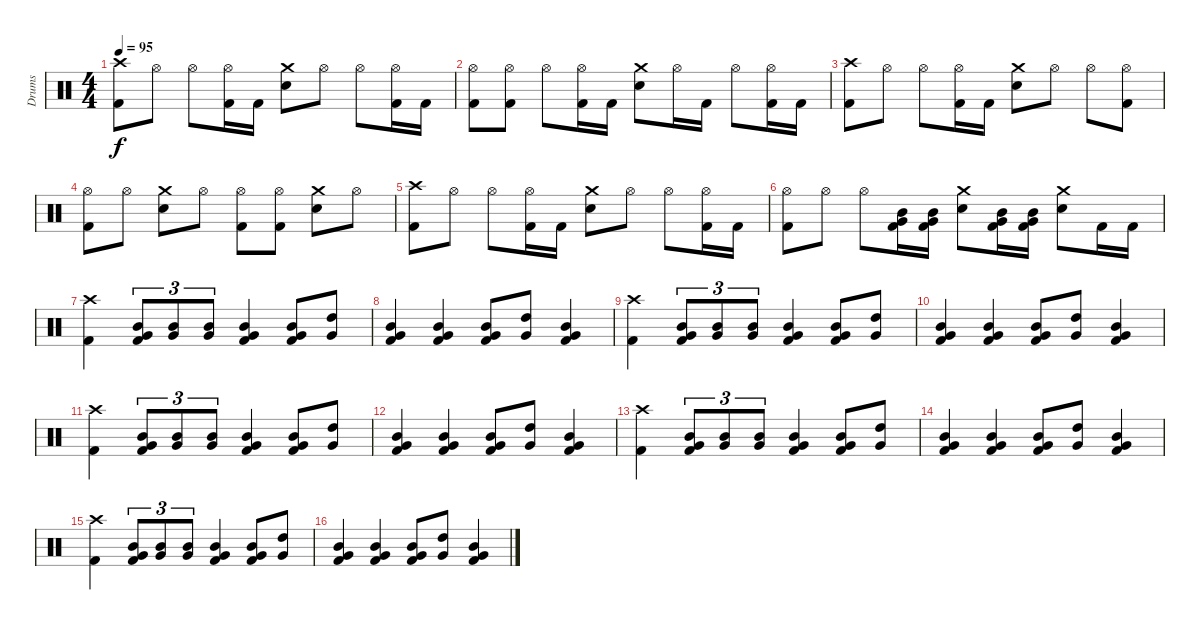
\track ("Drums" "Drums") {instrument percussion}
\staff {score}
\articulation defaults
\ts (4 4)
\tempo 95
\clef neutral
\ks c
("Crash high (hit)" "Kick (hit) 2").8{dy f} "Hi-Hat (open)".8 "Hi-Hat (open)".8 ("Hi-Hat (open)" "Kick (hit) 2").16 "Kick (hit) 2".16 ("Crash medium (hit)" "Electric Snare (hit)").8 "Hi-Hat (open)".8 "Hi-Hat (open)".8 ("Hi-Hat (open)" "Kick (hit) 2").16 "Kick (hit) 2".16 |
("Hi-Hat (open)" "Kick (hit) 2").8 ("Hi-Hat (open)" "Kick (hit) 2").8 "Hi-Hat (open)".8 ("Hi-Hat (open)" "Kick (hit) 2").16 "Kick (hit) 2".16 ("Crash medium (hit)" "Electric Snare (hit)").8 "Hi-Hat (open)".16 "Kick (hit) 2".16 "Hi-Hat (open)".8 ("Hi-Hat (open)" "Kick (hit) 2").16 "Kick (hit) 2".16 |
("Crash high (hit)" "Kick (hit) 2").8 "Hi-Hat (open)".8 "Hi-Hat (open)".8 ("Hi-Hat (open)" "Kick (hit) 2").16 "Kick (hit) 2".16 ("Crash medium (hit)" "Electric Snare (hit)").8 "Hi-Hat (open)".8 "Hi-Hat (open)".8 ("Hi-Hat (open)" "Kick (hit) 2").8 |
("Hi-Hat (open)" "Kick (hit) 2").8 "Hi-Hat (open)".8 ("Crash medium (hit)" "Electric Snare (hit)").8 "Hi-Hat (open)".8 ("Hi-Hat (open)" "Kick (hit) 2").8 ("Hi-Hat (open)" "Kick (hit) 2").8 ("Crash medium (hit)" "Electric Snare (hit)").8 "Hi-Hat (open)".8 |
("Crash high (hit)" "Kick (hit) 2").8 "Hi-Hat (open)".8 "Hi-Hat (open)".8 ("Hi-Hat (open)" "Kick (hit) 2").16 "Kick (hit) 2".16 ("Crash medium (hit)" "Electric Snare (hit)").8 "Hi-Hat (open)".8 "Hi-Hat (open)".8 ("Hi-Hat (open)" "Kick (hit) 2").16 "Kick (hit) 2".16 |
("Hi-Hat (open)" "Kick (hit) 2").8 "Hi-Hat (open)".8 "Hi-Hat (open)".8 ("Mid Tom (hit)" "Very Low Tom (hit)" "Kick (hit) 2").16 ("Mid Tom (hit)" "Very Low Tom (hit)" "Kick (hit) 2").16 ("Crash medium (hit)" "Electric Snare (hit)").8 ("Mid Tom (hit)" "Very Low Tom (hit)" "Kick (hit) 2").16 ("Mid Tom (hit)" "Very Low Tom (hit)" "Kick (hit) 2").16 ("Crash medium (hit)" "Electric Snare (hit)").8 "Kick (hit) 2".16 "Kick (hit) 2".16 |
("Crash high (hit)" "Kick (hit) 2").4 ("Mid Tom (hit)" "Very Low Tom (hit)" "Kick (hit) 2").8{tu (3 2)} ("Mid Tom (hit)" "Very Low Tom (hit)").8{tu (3 2)} ("Mid Tom (hit)" "Very Low Tom (hit)").8{tu (3 2)} ("Mid Tom (hit)" "Very Low Tom (hit)" "Kick (hit) 2").4 ("Mid Tom (hit)" "Very Low Tom (hit)" "Kick (hit) 2").8 ("High Tom (hit)" "Very Low Tom (hit)").8 |
("Mid Tom (hit)" "Very Low Tom (hit)" "Kick (hit) 2").4 ("Mid Tom (hit)" "Very Low Tom (hit)" "Kick (hit) 2").4 ("Mid Tom (hit)" "Very Low Tom (hit)" "Kick (hit) 2").8 ("High Tom (hit)" "Very Low Tom (hit)").8 ("Mid Tom (hit)" "Very Low Tom (hit)" "Kick (hit) 2").4 |
("Crash high (hit)" "Kick (hit) 2").4 ("Mid Tom (hit)" "Very Low Tom (hit)" "Kick (hit) 2").8{tu (3 2)} ("Mid Tom (hit)" "Very Low Tom (hit)").8{tu (3 2)} ("Mid Tom (hit)" "Very Low Tom (hit)").8{tu (3 2)} ("Mid Tom (hit)" "Very Low Tom (hit)" "Kick (hit) 2").4 ("Mid Tom (hit)" "Very Low Tom (hit)" "Kick (hit) 2").8 ("High Tom (hit)" "Very Low Tom (hit)").8 |
("Mid Tom (hit)" "Very Low Tom (hit)" "Kick (hit) 2").4 ("Mid Tom (hit)" "Very Low Tom (hit)" "Kick (hit) 2").4 ("Mid Tom (hit)" "Very Low Tom (hit)" "Kick (hit) 2").8 ("High Tom (hit)" "Very Low Tom (hit)").8 ("Mid Tom (hit)" "Very Low Tom (hit)" "Kick (hit) 2").4 |
("Crash high (hit)" "Kick (hit) 2").4 ("Mid Tom (hit)" "Very Low Tom (hit)" "Kick (hit) 2").8{tu (3 2)} ("Mid Tom (hit)" "Very Low Tom (hit)").8{tu (3 2)} ("Mid Tom (hit)" "Very Low Tom (hit)").8{tu (3 2)} ("Mid Tom (hit)" "Very Low Tom (hit)" "Kick (hit) 2").4 ("Mid Tom (hit)" "Very Low Tom (hit)" "Kick (hit) 2").8 ("High Tom (hit)" "Very Low Tom (hit)").8 |
("Mid Tom (hit)" "Very Low Tom (hit)" "Kick (hit) 2").4 ("Mid Tom (hit)" "Very Low Tom (hit)" "Kick (hit) 2").4 ("Mid Tom (hit)" "Very Low Tom (hit)" "Kick (hit) 2").8 ("High Tom (hit)" "Very Low Tom (hit)").8 ("Mid Tom (hit)" "Very Low Tom (hit)" "Kick (hit) 2").4 |
("Crash high (hit)" "Kick (hit) 2").4 ("Mid Tom (hit)" "Very Low Tom (hit)" "Kick (hit) 2").8{tu (3 2)} ("Mid Tom (hit)" "Very Low Tom (hit)").8{tu (3 2)} ("Mid Tom (hit)" "Very Low Tom (hit)").8{tu (3 2)} ("Mid Tom (hit)" "Very Low Tom (hit)" "Kick (hit) 2").4 ("Mid Tom (hit)" "Very Low Tom (hit)" "Kick (hit) 2").8 ("High Tom (hit)" "Very Low Tom (hit)").8 |
("Mid Tom (hit)" "Very Low Tom (hit)" "Kick (hit) 2").4 ("Mid Tom (hit)" "Very Low Tom (hit)" "Kick (hit) 2").4 ("Mid Tom (hit)" "Very Low Tom (hit)" "Kick (hit) 2").8 ("High Tom (hit)" "Very Low Tom (hit)").8 ("Mid Tom (hit)" "Very Low Tom (hit)" "Kick (hit) 2").4 |
("Crash high (hit)" "Kick (hit) 2").4 ("Mid Tom (hit)" "Very Low Tom (hit)" "Kick (hit) 2").8{tu (3 2)} ("Mid Tom (hit)" "Very Low Tom (hit)").8{tu (3 2)} ("Mid Tom (hit)" "Very Low Tom (hit)").8{tu (3 2)} ("Mid Tom (hit)" "Very Low Tom (hit)" "Kick (hit) 2").4 ("Mid Tom (hit)" "Very Low Tom (hit)" "Kick (hit) 2").8 ("High Tom (hit)" "Very Low Tom (hit)").8 |
("Mid Tom (hit)" "Very Low Tom (hit)" "Kick (hit) 2").4 ("Mid Tom (hit)" "Very Low Tom (hit)" "Kick (hit) 2").4 ("Mid Tom (hit)" "Very Low Tom (hit)" "Kick (hit) 2").8 ("High Tom (hit)" "Very Low Tom (hit)").8 ("Mid Tom (hit)" "Very Low Tom (hit)" "Kick (hit) 2").4
